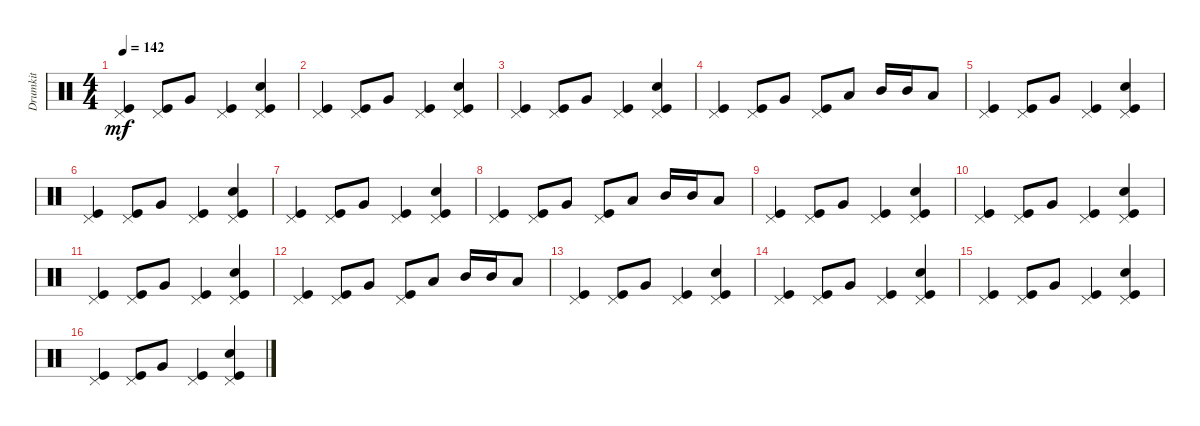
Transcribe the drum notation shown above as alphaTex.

\track ("Drumkit" "Drumkit") {instrument percussion}
\staff {score}
\articulation defaults
\ts (4 4)
\tempo 142
\clef neutral
\ks c
("Kick (hit)" "Pedal Hi-Hat (hit)").4{dy mf} ("Pedal Hi-Hat (hit)" "Kick (hit)").8 "Very Low Tom (hit)".8 ("Kick (hit)" "Pedal Hi-Hat (hit)").4 ("Snare (hit) 2" "Kick (hit)" "Pedal Hi-Hat (hit)").4 |
("Kick (hit)" "Pedal Hi-Hat (hit)").4 ("Pedal Hi-Hat (hit)" "Kick (hit)").8 "Very Low Tom (hit)".8 ("Kick (hit)" "Pedal Hi-Hat (hit)").4 ("Snare (hit) 2" "Kick (hit)" "Pedal Hi-Hat (hit)").4 |
("Kick (hit)" "Pedal Hi-Hat (hit)").4 ("Pedal Hi-Hat (hit)" "Kick (hit)").8 "Very Low Tom (hit)".8 ("Kick (hit)" "Pedal Hi-Hat (hit)").4 ("Snare (hit) 2" "Kick (hit)" "Pedal Hi-Hat (hit)").4 |
("Kick (hit)" "Pedal Hi-Hat (hit)").4 ("Pedal Hi-Hat (hit)" "Kick (hit)").8 "Very Low Tom (hit)".8 ("Kick (hit)" "Pedal Hi-Hat (hit)").8 "Low Floor Tom (hit)".8 "Mid Tom (hit)".16 "Mid Tom (hit)".16 "Low Floor Tom (hit)".8 |
("Kick (hit)" "Pedal Hi-Hat (hit)").4 ("Pedal Hi-Hat (hit)" "Kick (hit)").8 "Very Low Tom (hit)".8 ("Kick (hit)" "Pedal Hi-Hat (hit)").4 ("Snare (hit) 2" "Kick (hit)" "Pedal Hi-Hat (hit)").4 |
("Kick (hit)" "Pedal Hi-Hat (hit)").4 ("Pedal Hi-Hat (hit)" "Kick (hit)").8 "Very Low Tom (hit)".8 ("Kick (hit)" "Pedal Hi-Hat (hit)").4 ("Snare (hit) 2" "Kick (hit)" "Pedal Hi-Hat (hit)").4 |
("Kick (hit)" "Pedal Hi-Hat (hit)").4 ("Pedal Hi-Hat (hit)" "Kick (hit)").8 "Very Low Tom (hit)".8 ("Kick (hit)" "Pedal Hi-Hat (hit)").4 ("Snare (hit) 2" "Kick (hit)" "Pedal Hi-Hat (hit)").4 |
("Kick (hit)" "Pedal Hi-Hat (hit)").4 ("Pedal Hi-Hat (hit)" "Kick (hit)").8 "Very Low Tom (hit)".8 ("Kick (hit)" "Pedal Hi-Hat (hit)").8 "Low Floor Tom (hit)".8 "Mid Tom (hit)".16 "Mid Tom (hit)".16 "Low Floor Tom (hit)".8 |
("Kick (hit)" "Pedal Hi-Hat (hit)").4 ("Pedal Hi-Hat (hit)" "Kick (hit)").8 "Very Low Tom (hit)".8 ("Kick (hit)" "Pedal Hi-Hat (hit)").4 ("Snare (hit) 2" "Kick (hit)" "Pedal Hi-Hat (hit)").4 |
("Kick (hit)" "Pedal Hi-Hat (hit)").4 ("Pedal Hi-Hat (hit)" "Kick (hit)").8 "Very Low Tom (hit)".8 ("Kick (hit)" "Pedal Hi-Hat (hit)").4 ("Snare (hit) 2" "Kick (hit)" "Pedal Hi-Hat (hit)").4 |
("Kick (hit)" "Pedal Hi-Hat (hit)").4 ("Pedal Hi-Hat (hit)" "Kick (hit)").8 "Very Low Tom (hit)".8 ("Kick (hit)" "Pedal Hi-Hat (hit)").4 ("Snare (hit) 2" "Kick (hit)" "Pedal Hi-Hat (hit)").4 |
("Kick (hit)" "Pedal Hi-Hat (hit)").4 ("Pedal Hi-Hat (hit)" "Kick (hit)").8 "Very Low Tom (hit)".8 ("Kick (hit)" "Pedal Hi-Hat (hit)").8 "Low Floor Tom (hit)".8 "Mid Tom (hit)".16 "Mid Tom (hit)".16 "Low Floor Tom (hit)".8 |
("Kick (hit)" "Pedal Hi-Hat (hit)").4 ("Pedal Hi-Hat (hit)" "Kick (hit)").8 "Very Low Tom (hit)".8 ("Kick (hit)" "Pedal Hi-Hat (hit)").4 ("Snare (hit) 2" "Kick (hit)" "Pedal Hi-Hat (hit)").4 |
("Kick (hit)" "Pedal Hi-Hat (hit)").4 ("Pedal Hi-Hat (hit)" "Kick (hit)").8 "Very Low Tom (hit)".8 ("Kick (hit)" "Pedal Hi-Hat (hit)").4 ("Snare (hit) 2" "Kick (hit)" "Pedal Hi-Hat (hit)").4 |
("Kick (hit)" "Pedal Hi-Hat (hit)").4 ("Pedal Hi-Hat (hit)" "Kick (hit)").8 "Very Low Tom (hit)".8 ("Kick (hit)" "Pedal Hi-Hat (hit)").4 ("Snare (hit) 2" "Kick (hit)" "Pedal Hi-Hat (hit)").4 |
("Kick (hit)" "Pedal Hi-Hat (hit)").4 ("Pedal Hi-Hat (hit)" "Kick (hit)").8 "Very Low Tom (hit)".8 ("Kick (hit)" "Pedal Hi-Hat (hit)").4 ("Snare (hit) 2" "Kick (hit)" "Pedal Hi-Hat (hit)").4
